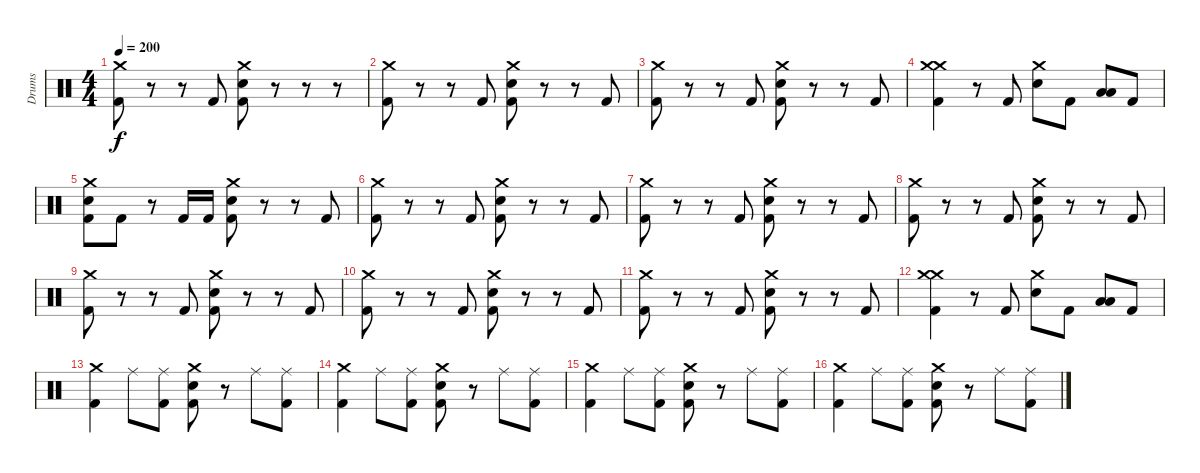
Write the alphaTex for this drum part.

\track ("Drums" "Drums") {instrument percussion}
\staff {score}
\articulation defaults
\ts (4 4)
\tempo 200
\clef neutral
\ks c
("Crash medium (hit)" "Kick (hit) 2").8{dy f} r.8 r.8 "Kick (hit) 2".8 ("Crash medium (hit)" "Electric Snare (hit)" "Kick (hit) 2").8 r.8 r.8 r.8 |
("Crash medium (hit)" "Kick (hit) 2").8 r.8 r.8 "Kick (hit) 2".8 ("Crash medium (hit)" "Electric Snare (hit)" "Kick (hit) 2").8 r.8 r.8 "Kick (hit) 2".8 |
("Crash medium (hit)" "Kick (hit) 2").8 r.8 r.8 "Kick (hit) 2".8 ("Crash medium (hit)" "Electric Snare (hit)" "Kick (hit) 2").8 r.8 r.8 "Kick (hit) 2".8 |
("Crash medium (hit)" "Crash medium (hit)" "Kick (hit) 2").4 r.8 "Kick (hit) 2".8 ("Crash medium (hit)" "Electric Snare (hit)").8 "Kick (hit) 2".8 ("Low Floor Tom (hit)" "Low Tom (hit)").8 "Kick (hit) 2".8 |
("Crash medium (hit)" "Electric Snare (hit)" "Kick (hit) 2").8 "Kick (hit) 2".8 r.8 "Kick (hit) 2".16 "Kick (hit) 2".16 ("Crash medium (hit)" "Electric Snare (hit)" "Kick (hit) 2").8 r.8 r.8 "Kick (hit) 2".8 |
("Crash medium (hit)" "Kick (hit) 2").8 r.8 r.8 "Kick (hit) 2".8 ("Crash medium (hit)" "Electric Snare (hit)" "Kick (hit) 2").8 r.8 r.8 "Kick (hit) 2".8 |
("Crash medium (hit)" "Kick (hit) 2").8 r.8 r.8 "Kick (hit) 2".8 ("Crash medium (hit)" "Electric Snare (hit)" "Kick (hit) 2").8 r.8 r.8 "Kick (hit) 2".8 |
("Crash medium (hit)" "Kick (hit) 2").8 r.8 r.8 "Kick (hit) 2".8 ("Crash medium (hit)" "Electric Snare (hit)" "Kick (hit) 2").8 r.8 r.8 "Kick (hit) 2".8 |
("Crash medium (hit)" "Kick (hit) 2").8 r.8 r.8 "Kick (hit) 2".8 ("Crash medium (hit)" "Electric Snare (hit)" "Kick (hit) 2").8 r.8 r.8 "Kick (hit) 2".8 |
("Crash medium (hit)" "Kick (hit) 2").8 r.8 r.8 "Kick (hit) 2".8 ("Crash medium (hit)" "Electric Snare (hit)" "Kick (hit) 2").8 r.8 r.8 "Kick (hit) 2".8 |
("Crash medium (hit)" "Kick (hit) 2").8 r.8 r.8 "Kick (hit) 2".8 ("Crash medium (hit)" "Electric Snare (hit)" "Kick (hit) 2").8 r.8 r.8 "Kick (hit) 2".8 |
("Crash medium (hit)" "Crash medium (hit)" "Kick (hit) 2").4 r.8 "Kick (hit) 2".8 ("Crash medium (hit)" "Electric Snare (hit)").8 "Kick (hit) 2".8 ("Low Floor Tom (hit)" "Low Tom (hit)").8 "Kick (hit) 2".8 |
("Crash medium (hit)" "Kick (hit) 2").4 "Ride (middle)".8 ("Ride (middle)" "Kick (hit) 2").8 ("Crash medium (hit)" "Electric Snare (hit)" "Kick (hit) 2").8 r.8 "Ride (middle)".8 ("Ride (middle)" "Kick (hit) 2").8 |
("Crash medium (hit)" "Kick (hit) 2").4 "Ride (middle)".8 ("Ride (middle)" "Kick (hit) 2").8 ("Crash medium (hit)" "Electric Snare (hit)" "Kick (hit) 2").8 r.8 "Ride (middle)".8 ("Ride (middle)" "Kick (hit) 2").8 |
("Crash medium (hit)" "Kick (hit) 2").4 "Ride (middle)".8 ("Ride (middle)" "Kick (hit) 2").8 ("Crash medium (hit)" "Electric Snare (hit)" "Kick (hit) 2").8 r.8 "Ride (middle)".8 ("Ride (middle)" "Kick (hit) 2").8 |
("Crash medium (hit)" "Kick (hit) 2").4 "Ride (middle)".8 ("Ride (middle)" "Kick (hit) 2").8 ("Crash medium (hit)" "Electric Snare (hit)" "Kick (hit) 2").8 r.8 "Ride (middle)".8 ("Ride (middle)" "Kick (hit) 2").8
